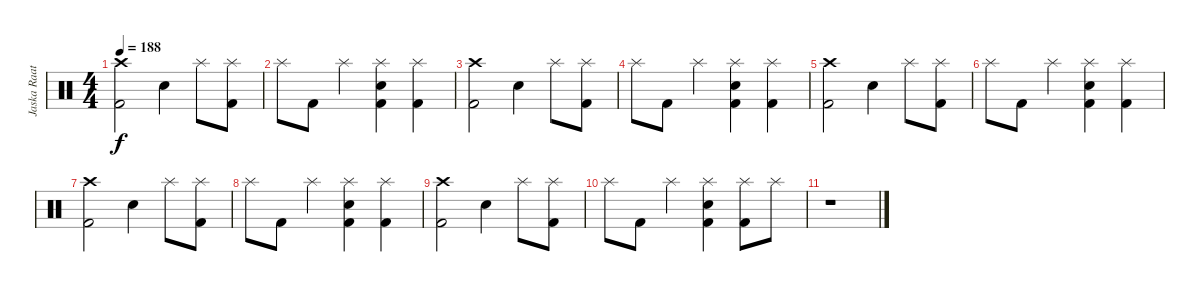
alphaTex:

\track ("Jaska Raatikainen" "Jaska Raat") {instrument percussion}
\staff {score}
\articulation defaults
\ts (4 4)
\tempo 188
\clef neutral
\ks c
("Crash high (hit)" "Kick (hit) 2").2{dy f} "Electric Snare (hit)".4 "Splash (hit)".8 ("Splash (hit)" "Kick (hit) 2").8 |
"Splash (hit)".8 "Kick (hit) 2".8 "Splash (hit)".4 ("Splash (hit)" "Electric Snare (hit)" "Kick (hit) 2").4 ("Splash (hit)" "Kick (hit) 2").4 |
("Crash high (hit)" "Kick (hit) 2").2 "Electric Snare (hit)".4 "Splash (hit)".8 ("Splash (hit)" "Kick (hit) 2").8 |
"Splash (hit)".8 "Kick (hit) 2".8 "Splash (hit)".4 ("Splash (hit)" "Electric Snare (hit)" "Kick (hit) 2").4 ("Splash (hit)" "Kick (hit) 2").4 |
("Crash high (hit)" "Kick (hit) 2").2 "Electric Snare (hit)".4 "Splash (hit)".8 ("Splash (hit)" "Kick (hit) 2").8 |
"Splash (hit)".8 "Kick (hit) 2".8 "Splash (hit)".4 ("Splash (hit)" "Electric Snare (hit)" "Kick (hit) 2").4 ("Splash (hit)" "Kick (hit) 2").4 |
("Crash high (hit)" "Kick (hit) 2").2 "Electric Snare (hit)".4 "Splash (hit)".8 ("Splash (hit)" "Kick (hit) 2").8 |
"Splash (hit)".8 "Kick (hit) 2".8 "Splash (hit)".4 ("Splash (hit)" "Electric Snare (hit)" "Kick (hit) 2").4 ("Splash (hit)" "Kick (hit) 2").4 |
("Crash high (hit)" "Kick (hit) 2").2 "Electric Snare (hit)".4 "Splash (hit)".8 ("Splash (hit)" "Kick (hit) 2").8 |
"Splash (hit)".8 "Kick (hit) 2".8 "Splash (hit)".4 ("Splash (hit)" "Electric Snare (hit)" "Kick (hit) 2").4 ("Splash (hit)" "Kick (hit) 2").8 "Splash (hit)".8 |
r.1
